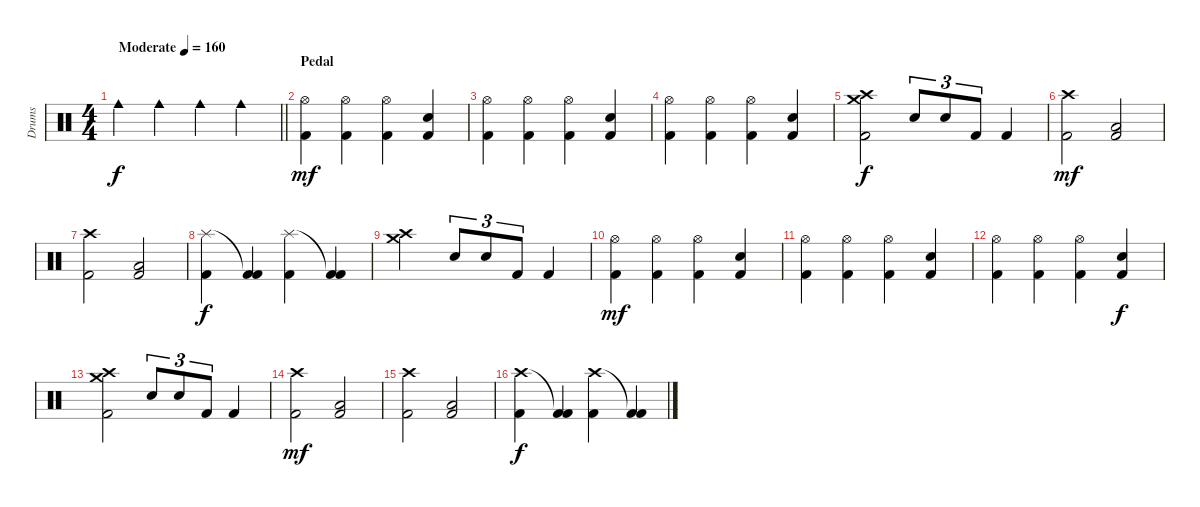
\track ("Drums" "Drums") {instrument percussion}
\staff {score}
\articulation defaults
\ts (4 4)
\tempo (160 "Moderate")
\clef neutral
\barLineRight lightlight
\ks c "Cowbell medium (hit)".4{dy f} "Cowbell medium (hit)".4 "Cowbell medium (hit)".4 "Cowbell medium (hit)".4
|
\section ("" "Pedal")
("Hi-Hat (open)" "Kick (hit) 2").4{dy mf} ("Hi-Hat (open)" "Kick (hit) 2").4 ("Hi-Hat (open)" "Kick (hit) 2").4 ("Snare (hit) 2" "Kick (hit) 2").4 |
("Hi-Hat (open)" "Kick (hit) 2").4 ("Hi-Hat (open)" "Kick (hit) 2").4 ("Hi-Hat (open)" "Kick (hit) 2").4 ("Snare (hit) 2" "Kick (hit) 2").4 |
("Hi-Hat (open)" "Kick (hit) 2").4 ("Hi-Hat (open)" "Kick (hit) 2").4 ("Hi-Hat (open)" "Kick (hit) 2").4 ("Snare (hit) 2" "Kick (hit) 2").4 |
("Crash medium (hit)" "Crash high (hit)" "Kick (hit) 2").2{dy f} "Snare (hit) 2".8{tu (3 2)} "Snare (hit) 2".8{tu (3 2)} "Kick (hit) 2".8{tu (3 2)} "Kick (hit) 2".4 |
("Crash high (hit)" "Kick (hit) 2").2{dy mf} ("Low Tom (hit)" "Kick (hit) 2").2 |
("Crash high (hit)" "Kick (hit) 2").2 ("Low Tom (hit)" "Kick (hit) 2").2 |
("Splash (hit)" "Kick (hit) 2").4{dy f} ("Kick (hit) 2"{t} "Kick (hit) 2").4 ("Splash (hit)" "Kick (hit) 2").4 ("Kick (hit) 2"{t} "Kick (hit) 2").4 |
("Crash high (hit)" "Crash medium (hit)").2 "Snare (hit) 2".8{tu (3 2)} "Snare (hit) 2".8{tu (3 2)} "Kick (hit) 2".8{tu (3 2)} "Kick (hit) 2".4 |
("Hi-Hat (open)" "Kick (hit) 2").4{dy mf} ("Hi-Hat (open)" "Kick (hit) 2").4 ("Hi-Hat (open)" "Kick (hit) 2").4 ("Snare (hit) 2" "Kick (hit) 2").4 |
("Hi-Hat (open)" "Kick (hit) 2").4 ("Hi-Hat (open)" "Kick (hit) 2").4 ("Hi-Hat (open)" "Kick (hit) 2").4 ("Snare (hit) 2" "Kick (hit) 2").4 |
("Hi-Hat (open)" "Kick (hit) 2").4 ("Hi-Hat (open)" "Kick (hit) 2").4 ("Hi-Hat (open)" "Kick (hit) 2").4 ("Snare (hit) 2" "Kick (hit) 2").4{dy f} |
("Crash high (hit)" "Crash medium (hit)" "Kick (hit) 2").2 "Snare (hit) 2".8{tu (3 2)} "Snare (hit) 2".8{tu (3 2)} "Kick (hit) 2".8{tu (3 2)} "Kick (hit) 2".4 |
("Crash high (hit)" "Kick (hit) 2").2{dy mf} ("Low Tom (hit)" "Kick (hit) 2").2 |
("Crash high (hit)" "Kick (hit) 2").2 ("Low Tom (hit)" "Kick (hit) 2").2 |
("Crash high (hit)" "Kick (hit) 2").4{dy f} ("Kick (hit) 2"{t} "Kick (hit) 2").4 ("Crash high (hit)" "Kick (hit) 2").4 ("Kick (hit) 2"{t} "Kick (hit) 2").4
